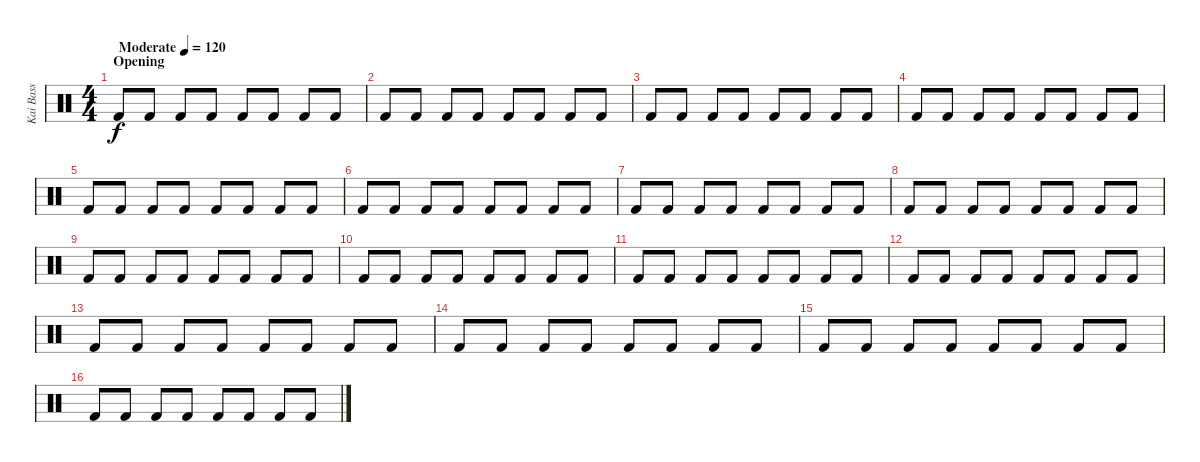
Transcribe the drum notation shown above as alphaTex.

\track ("Kai Bass" "Kai Bass") {instrument percussion}
\staff {score}
\articulation defaults
\ts (4 4)
\section ("" "Opening")
\tempo (120 "Moderate")
\clef neutral
\ks c "Kick (hit) 2".8{dy f} "Kick (hit) 2".8 "Kick (hit) 2".8 "Kick (hit) 2".8 "Kick (hit) 2".8 "Kick (hit) 2".8 "Kick (hit) 2".8 "Kick (hit) 2".8
|
"Kick (hit) 2".8 "Kick (hit) 2".8 "Kick (hit) 2".8 "Kick (hit) 2".8 "Kick (hit) 2".8 "Kick (hit) 2".8 "Kick (hit) 2".8 "Kick (hit) 2".8 |
"Kick (hit) 2".8 "Kick (hit) 2".8 "Kick (hit) 2".8 "Kick (hit) 2".8 "Kick (hit) 2".8 "Kick (hit) 2".8 "Kick (hit) 2".8 "Kick (hit) 2".8 |
"Kick (hit) 2".8 "Kick (hit) 2".8 "Kick (hit) 2".8 "Kick (hit) 2".8 "Kick (hit) 2".8 "Kick (hit) 2".8 "Kick (hit) 2".8 "Kick (hit) 2".8 |
"Kick (hit) 2".8 "Kick (hit) 2".8 "Kick (hit) 2".8 "Kick (hit) 2".8 "Kick (hit) 2".8 "Kick (hit) 2".8 "Kick (hit) 2".8 "Kick (hit) 2".8 |
"Kick (hit) 2".8 "Kick (hit) 2".8 "Kick (hit) 2".8 "Kick (hit) 2".8 "Kick (hit) 2".8 "Kick (hit) 2".8 "Kick (hit) 2".8 "Kick (hit) 2".8 |
"Kick (hit) 2".8 "Kick (hit) 2".8 "Kick (hit) 2".8 "Kick (hit) 2".8 "Kick (hit) 2".8 "Kick (hit) 2".8 "Kick (hit) 2".8 "Kick (hit) 2".8 |
"Kick (hit) 2".8 "Kick (hit) 2".8 "Kick (hit) 2".8 "Kick (hit) 2".8 "Kick (hit) 2".8 "Kick (hit) 2".8 "Kick (hit) 2".8 "Kick (hit) 2".8 |
"Kick (hit) 2".8 "Kick (hit) 2".8 "Kick (hit) 2".8 "Kick (hit) 2".8 "Kick (hit) 2".8 "Kick (hit) 2".8 "Kick (hit) 2".8 "Kick (hit) 2".8 |
"Kick (hit) 2".8 "Kick (hit) 2".8 "Kick (hit) 2".8 "Kick (hit) 2".8 "Kick (hit) 2".8 "Kick (hit) 2".8 "Kick (hit) 2".8 "Kick (hit) 2".8 |
"Kick (hit) 2".8 "Kick (hit) 2".8 "Kick (hit) 2".8 "Kick (hit) 2".8 "Kick (hit) 2".8 "Kick (hit) 2".8 "Kick (hit) 2".8 "Kick (hit) 2".8 |
"Kick (hit) 2".8 "Kick (hit) 2".8 "Kick (hit) 2".8 "Kick (hit) 2".8 "Kick (hit) 2".8 "Kick (hit) 2".8 "Kick (hit) 2".8 "Kick (hit) 2".8 |
"Kick (hit) 2".8 "Kick (hit) 2".8 "Kick (hit) 2".8 "Kick (hit) 2".8 "Kick (hit) 2".8 "Kick (hit) 2".8 "Kick (hit) 2".8 "Kick (hit) 2".8 |
"Kick (hit) 2".8 "Kick (hit) 2".8 "Kick (hit) 2".8 "Kick (hit) 2".8 "Kick (hit) 2".8 "Kick (hit) 2".8 "Kick (hit) 2".8 "Kick (hit) 2".8 |
"Kick (hit) 2".8 "Kick (hit) 2".8 "Kick (hit) 2".8 "Kick (hit) 2".8 "Kick (hit) 2".8 "Kick (hit) 2".8 "Kick (hit) 2".8 "Kick (hit) 2".8 |
"Kick (hit) 2".8 "Kick (hit) 2".8 "Kick (hit) 2".8 "Kick (hit) 2".8 "Kick (hit) 2".8 "Kick (hit) 2".8 "Kick (hit) 2".8 "Kick (hit) 2".8
